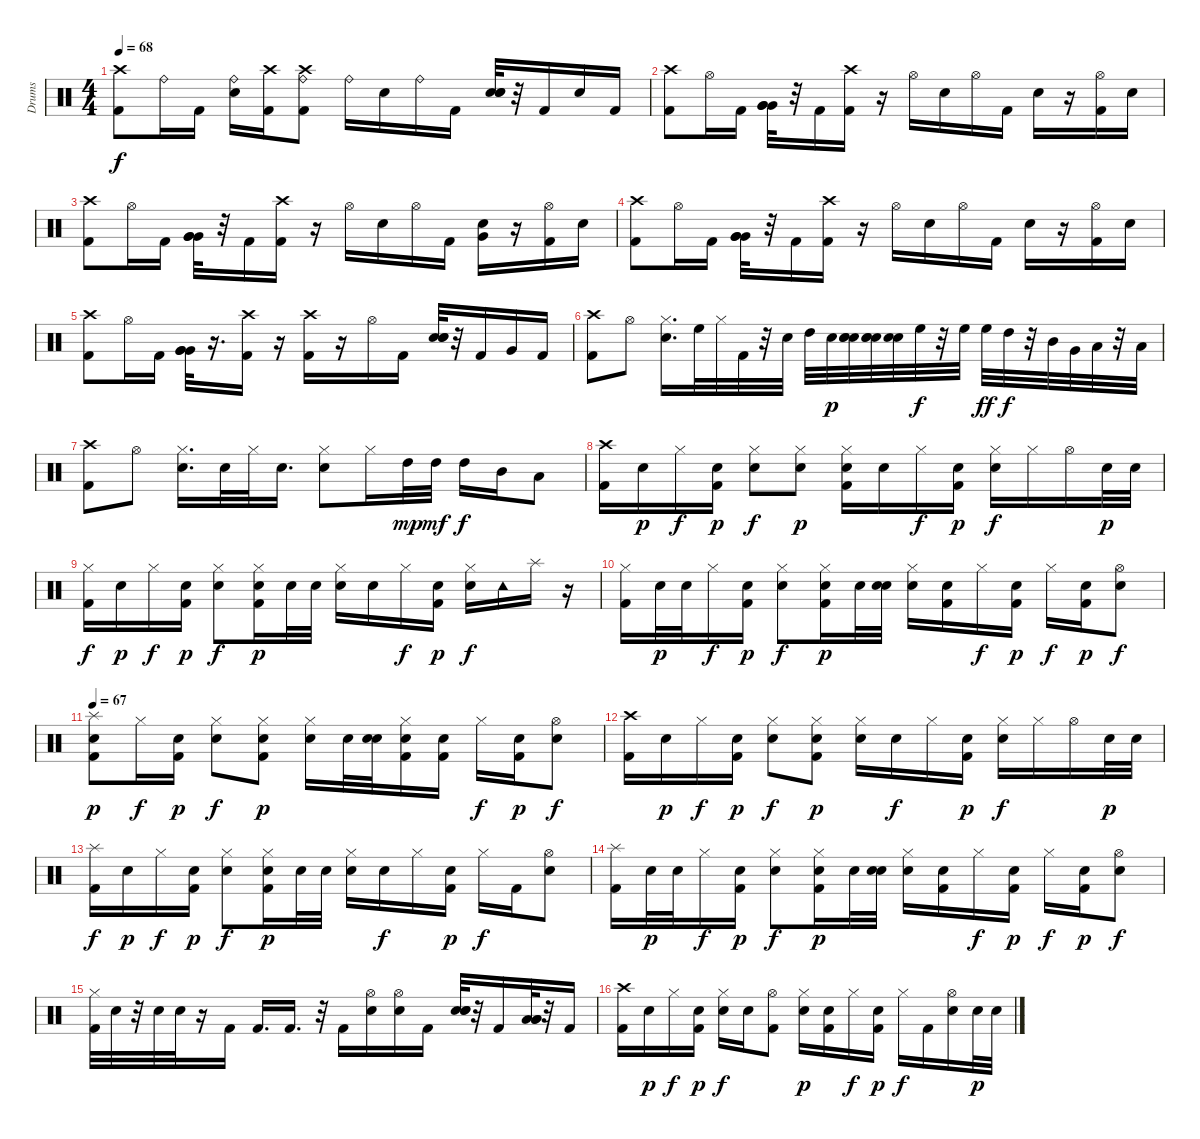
\track ("Drums" "Drums") {instrument percussion}
\staff {score}
\articulation defaults
\ts (4 4)
\tempo 68
\clef neutral
\ks c
("Kick (hit) 2" "Crash high (hit)").8{dy f} "Ride (bell)".16 "Kick (hit) 2".16 ("Ride (bell)" "Electric Snare (hit)").16 ("Kick (hit) 2" "Crash high (hit)").16 ("Ride (bell)" "Crash high (hit)" "Kick (hit) 2").8 "Ride (bell)".16 "Electric Snare (hit)".16 "Ride (bell)".16 "Kick (hit) 2".16 ("Electric Snare (hit)" "Electric Snare (hit)" "Electric Snare (hit)").32 r.32 "Kick (hit) 2".16 "Electric Snare (hit)".16 "Kick (hit) 2".16 |
("Crash high (hit)" "Kick (hit) 2").8 "Hi-Hat (open)".16 "Kick (hit) 2".16 ("Very Low Tom (hit)" "Very Low Tom (hit)" "Very Low Tom (hit)").32 r.32 "Kick (hit) 2".16 ("Crash high (hit)" "Kick (hit) 2").16 r.16 "Hi-Hat (open)".16 "Electric Snare (hit)".16 "Hi-Hat (open)".16 "Kick (hit) 2".16 "Electric Snare (hit)".16 r.16 ("Kick (hit) 2" "Hi-Hat (open)").16 "Electric Snare (hit)".16 |
("Kick (hit) 2" "Crash high (hit)").8 "Hi-Hat (open)".16 "Kick (hit) 2".16 ("Very Low Tom (hit)" "Very Low Tom (hit)" "Very Low Tom (hit)").32 r.32 "Kick (hit) 2".16 ("Crash high (hit)" "Kick (hit) 2").16 r.16 "Hi-Hat (open)".16 "Electric Snare (hit)".16 "Hi-Hat (open)".16 "Kick (hit) 2".16 ("Electric Snare (hit)" "Very Low Tom (hit)").16 r.16 ("Kick (hit) 2" "Hi-Hat (open)").16 "Electric Snare (hit)".16 |
("Kick (hit) 2" "Crash high (hit)").8 "Hi-Hat (open)".16 "Kick (hit) 2".16 ("Very Low Tom (hit)" "Very Low Tom (hit)" "Very Low Tom (hit)").32 r.32 "Kick (hit) 2".16 ("Crash high (hit)" "Kick (hit) 2").16 r.16 "Hi-Hat (open)".16 "Electric Snare (hit)".16 "Hi-Hat (open)".16 "Kick (hit) 2".16 "Electric Snare (hit)".16 r.16 ("Kick (hit) 2" "Hi-Hat (open)").16 "Electric Snare (hit)".16 |
("Crash high (hit)" "Kick (hit) 2").8 "Hi-Hat (open)".16 "Kick (hit) 2".16 ("Very Low Tom (hit)" "Very Low Tom (hit)" "Very Low Tom (hit)").32 r.16{d} ("Crash high (hit)" "Kick (hit) 2").16 r.16 ("Crash high (hit)" "Kick (hit) 2").16 r.16 "Hi-Hat (open)".16 "Kick (hit) 2".16 ("Electric Snare (hit)" "Electric Snare (hit)" "Electric Snare (hit)").32 r.32 "Kick (hit) 2".16 "Very Low Tom (hit)".16 "Kick (hit) 2".16 |
("Crash high (hit)" "Kick (hit) 2").8 "Hi-Hat (open)".8 ("Electric Snare (hit)" "Hi-Hat (closed)").16{d} "High Floor Tom (hit)".32 "Hi-Hat (closed)".32 "Kick (hit) 2".32 r.32 "Electric Snare (hit)".32 "High Tom (hit)".32 "Electric Snare (hit)".32{dy p} ("Electric Snare (hit)" "Electric Snare (hit)" "Electric Snare (hit)").32 ("Electric Snare (hit)" "Electric Snare (hit)" "Electric Snare (hit)").32 ("Electric Snare (hit)" "Electric Snare (hit)").32 "High Floor Tom (hit)".32{dy f} r.32 "High Floor Tom (hit)".32 "High Floor Tom (hit)".32{dy ff} "High Tom (hit)".32{dy f} r.32 "Mid Tom (hit)".32 "Very Low Tom (hit)".32 "Low Floor Tom (hit)".32 r.32 "Low Floor Tom (hit)".32 |
("Crash high (hit)" "Kick (hit) 2").8 "Hi-Hat (open)".8 ("Electric Snare (hit)" "Hi-Hat (closed)").16{d} "Electric Snare (hit)".32 "Hi-Hat (closed)".32 "Electric Snare (hit)".16{d} ("Electric Snare (hit)" "Hi-Hat (closed)").8 "Hi-Hat (closed)".16 "High Tom (hit)".32{dy mp} "High Tom (hit)".32{dy mf} "High Tom (hit)".16{dy f} "Mid Tom (hit)".16 "Low Tom (hit)".8 |
("Crash high (hit)" "Kick (hit) 2").16{volume 8} "Electric Snare (hit)".16{dy p} "Hi-Hat (closed)".16{dy f} ("Kick (hit) 2" "Electric Snare (hit)").16{dy p} ("Hi-Hat (closed)" "Electric Snare (hit)").8{dy f} ("Hi-Hat (closed)" "Electric Snare (hit)").8{dy p} ("Hi-Hat (closed)" "Kick (hit) 2" "Electric Snare (hit)").16 "Electric Snare (hit)".16 "Hi-Hat (closed)".16{dy f} ("Kick (hit) 2" "Electric Snare (hit)").16{dy p} ("Electric Snare (hit)" "Hi-Hat (closed)").16{dy f} "Hi-Hat (closed)".16 "Hi-Hat (open)".16 "Electric Snare (hit)".32{dy p} "Electric Snare (hit)".32 |
("Kick (hit) 2" "Hi-Hat (closed)").16{dy f} "Electric Snare (hit)".16{dy p} "Hi-Hat (closed)".16{dy f} ("Kick (hit) 2" "Electric Snare (hit)").16{dy p} ("Hi-Hat (closed)" "Electric Snare (hit)").8{dy f} ("Hi-Hat (closed)" "Kick (hit) 2" "Electric Snare (hit)").16{dy p} "Electric Snare (hit)".32 "Electric Snare (hit)".32 ("Hi-Hat (closed)" "Electric Snare (hit)").16 "Electric Snare (hit)".16 "Hi-Hat (closed)".16{dy f} ("Kick (hit) 2" "Electric Snare (hit)").16{dy p} ("Electric Snare (hit)" "Hi-Hat (closed)").16{dy f} "Tambourine (hit)".16 "Splash (hit)".16 r.16 |
("Hi-Hat (closed)" "Kick (hit) 2").16 "Electric Snare (hit)".32{dy p} "Electric Snare (hit)".32 "Hi-Hat (closed)".16{dy f} ("Kick (hit) 2" "Electric Snare (hit)").16{dy p} ("Hi-Hat (closed)" "Electric Snare (hit)").8{dy f} ("Hi-Hat (closed)" "Kick (hit) 2" "Electric Snare (hit)").16{dy p} "Electric Snare (hit)".32 ("Electric Snare (hit)" "Electric Snare (hit)").32 ("Hi-Hat (closed)" "Electric Snare (hit)").16 ("Kick (hit) 2" "Electric Snare (hit)").16 "Hi-Hat (closed)".16{dy f} ("Kick (hit) 2" "Electric Snare (hit)").16{dy p} "Hi-Hat (closed)".16{dy f} ("Kick (hit) 2" "Electric Snare (hit)").16{dy p} ("Hi-Hat (open)" "Electric Snare (hit)").8{dy f} |
\tempo 67
("Kick (hit) 2" "Electric Snare (hit)" "Splash (hit)").8{dy p} "Hi-Hat (closed)".16{dy f} ("Kick (hit) 2" "Electric Snare (hit)").16{dy p} ("Hi-Hat (closed)" "Electric Snare (hit)").8{dy f} ("Hi-Hat (closed)" "Kick (hit) 2" "Electric Snare (hit)").8{dy p} ("Hi-Hat (closed)" "Electric Snare (hit)").16 "Electric Snare (hit)".32 ("Electric Snare (hit)" "Electric Snare (hit)").32 ("Hi-Hat (closed)" "Kick (hit) 2" "Electric Snare (hit)").16 ("Kick (hit) 2" "Electric Snare (hit)").16 "Hi-Hat (closed)".16{dy f} ("Kick (hit) 2" "Electric Snare (hit)").16{dy p} ("Hi-Hat (open)" "Electric Snare (hit)").8{dy f} |
("Kick (hit) 2" "Crash high (hit)").16 "Electric Snare (hit)".16{dy p} "Hi-Hat (closed)".16{dy f} ("Kick (hit) 2" "Electric Snare (hit)").16{dy p} ("Hi-Hat (closed)" "Electric Snare (hit)").8{dy f} ("Hi-Hat (closed)" "Electric Snare (hit)" "Kick (hit) 2").8{dy p} ("Hi-Hat (closed)" "Electric Snare (hit)").16 "Electric Snare (hit)".16{dy f} "Hi-Hat (closed)".16 ("Kick (hit) 2" "Electric Snare (hit)").16{dy p} ("Electric Snare (hit)" "Hi-Hat (closed)").16{dy f} "Hi-Hat (closed)".16 "Hi-Hat (open)".16 "Electric Snare (hit)".32{dy p} "Electric Snare (hit)".32 |
("Kick (hit) 2" "Splash (hit)").16{dy f} "Electric Snare (hit)".16{dy p} "Hi-Hat (closed)".16{dy f} ("Kick (hit) 2" "Electric Snare (hit)").16{dy p} ("Hi-Hat (closed)" "Electric Snare (hit)").8{dy f} ("Hi-Hat (closed)" "Kick (hit) 2" "Electric Snare (hit)").16{dy p} "Electric Snare (hit)".32 "Electric Snare (hit)".32 ("Hi-Hat (closed)" "Electric Snare (hit)").16 "Electric Snare (hit)".16{dy f} "Hi-Hat (closed)".16 ("Kick (hit) 2" "Electric Snare (hit)").16{dy p} "Hi-Hat (closed)".16{dy f} "Kick (hit) 2".16 ("Electric Snare (hit)" "Hi-Hat (open)").8 |
("Kick (hit) 2" "Splash (hit)").16 "Electric Snare (hit)".32{dy p} "Electric Snare (hit)".32 "Hi-Hat (closed)".16{dy f} ("Kick (hit) 2" "Electric Snare (hit)").16{dy p} ("Hi-Hat (closed)" "Electric Snare (hit)").8{dy f} ("Hi-Hat (closed)" "Kick (hit) 2" "Electric Snare (hit)").16{dy p} "Electric Snare (hit)".32 ("Electric Snare (hit)" "Electric Snare (hit)").32 ("Hi-Hat (closed)" "Electric Snare (hit)").16 ("Kick (hit) 2" "Electric Snare (hit)").16 "Hi-Hat (closed)".16{dy f} ("Kick (hit) 2" "Electric Snare (hit)").16{dy p} "Hi-Hat (closed)".16{dy f} ("Kick (hit) 2" "Electric Snare (hit)").16{dy p} ("Hi-Hat (open)" "Electric Snare (hit)").8{dy f} |
("Kick (hit) 2" "Hi-Hat (closed)").32 "Electric Snare (hit)".32 r.32 "Electric Snare (hit)".32 "Electric Snare (hit)".32 r.16 "Kick (hit) 2".16 "Kick (hit) 2".16{d} "Kick (hit) 2".16{d} r.32 "Kick (hit) 2".16 ("Electric Snare (hit)" "Hi-Hat (open)").16 ("Electric Snare (hit)" "Hi-Hat (open)").16 "Kick (hit) 2".16 ("Electric Snare (hit)" "Electric Snare (hit)" "Electric Snare (hit)").32 r.32 "Kick (hit) 2".16 ("Low Tom (hit)" "Low Tom (hit)" "Low Tom (hit)").32 r.32 "Kick (hit) 2".16 |
("Crash high (hit)" "Kick (hit) 2").16 "Electric Snare (hit)".16{dy p} "Hi-Hat (closed)".16{dy f} ("Kick (hit) 2" "Electric Snare (hit)").16{dy p} ("Hi-Hat (closed)" "Electric Snare (hit)").16{dy f} "Electric Snare (hit)".16 ("Hi-Hat (open)" "Kick (hit) 2").8 ("Hi-Hat (closed)" "Electric Snare (hit)").16{dy p} ("Electric Snare (hit)" "Kick (hit) 2").16 "Hi-Hat (closed)".16{dy f} ("Kick (hit) 2" "Electric Snare (hit)").16{dy p} "Hi-Hat (closed)".16{dy f} "Kick (hit) 2".16 ("Hi-Hat (open)" "Electric Snare (hit)").16 "Electric Snare (hit)".32{dy p} "Electric Snare (hit)".32
